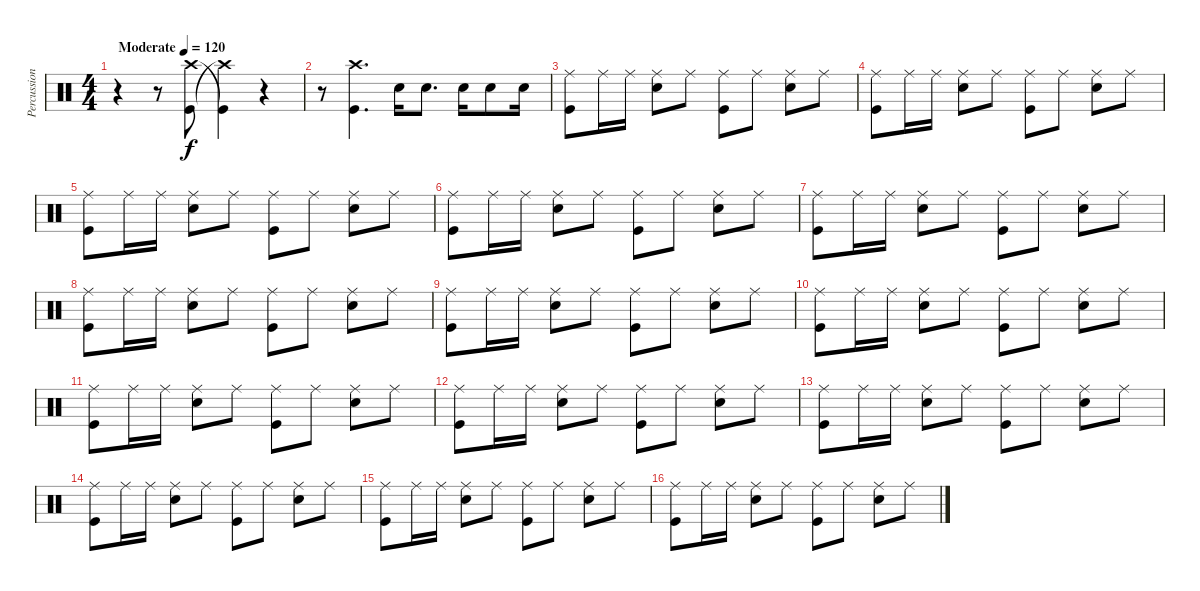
\track ("Percussion" "Percussion") {instrument percussion}
\staff {score}
\articulation defaults
\ts (4 4)
\tempo (120 "Moderate")
\clef neutral
\ks c
r.4{dy f} r.8 ("Kick (hit)" "Crash high (hit)").8 ("Crash high (hit)"{t} "Kick (hit)"{t}).4 r.4 |
r.8 ("Kick (hit)" "Crash high (hit)").4{d} "Snare (hit) 2".16 "Snare (hit) 2".8{d} "Snare (hit) 2".16 "Snare (hit) 2".8 "Snare (hit) 2".16 |
("Ride (middle)" "Kick (hit)").8 "Ride (middle)".16 "Ride (middle)".16 ("Ride (middle)" "Snare (hit) 2").8 "Ride (middle)".8 ("Ride (middle)" "Kick (hit)").8 "Ride (middle)".8 ("Ride (middle)" "Snare (hit) 2").8 "Ride (middle)".8 |
("Ride (middle)" "Kick (hit)").8 "Ride (middle)".16 "Ride (middle)".16 ("Ride (middle)" "Snare (hit) 2").8 "Ride (middle)".8 ("Ride (middle)" "Kick (hit)").8 "Ride (middle)".8 ("Ride (middle)" "Snare (hit) 2").8 "Ride (middle)".8 |
("Ride (middle)" "Kick (hit)").8 "Ride (middle)".16 "Ride (middle)".16 ("Ride (middle)" "Snare (hit) 2").8 "Ride (middle)".8 ("Ride (middle)" "Kick (hit)").8 "Ride (middle)".8 ("Ride (middle)" "Snare (hit) 2").8 "Ride (middle)".8 |
("Ride (middle)" "Kick (hit)").8 "Ride (middle)".16 "Ride (middle)".16 ("Ride (middle)" "Snare (hit) 2").8 "Ride (middle)".8 ("Ride (middle)" "Kick (hit)").8 "Ride (middle)".8 ("Ride (middle)" "Snare (hit) 2").8 "Ride (middle)".8 |
("Ride (middle)" "Kick (hit)").8 "Ride (middle)".16 "Ride (middle)".16 ("Ride (middle)" "Snare (hit) 2").8 "Ride (middle)".8 ("Ride (middle)" "Kick (hit)").8 "Ride (middle)".8 ("Ride (middle)" "Snare (hit) 2").8 "Ride (middle)".8 |
("Ride (middle)" "Kick (hit)").8 "Ride (middle)".16 "Ride (middle)".16 ("Ride (middle)" "Snare (hit) 2").8 "Ride (middle)".8 ("Ride (middle)" "Kick (hit)").8 "Ride (middle)".8 ("Ride (middle)" "Snare (hit) 2").8 "Ride (middle)".8 |
("Ride (middle)" "Kick (hit)").8 "Ride (middle)".16 "Ride (middle)".16 ("Ride (middle)" "Snare (hit) 2").8 "Ride (middle)".8 ("Ride (middle)" "Kick (hit)").8 "Ride (middle)".8 ("Ride (middle)" "Snare (hit) 2").8 "Ride (middle)".8 |
("Ride (middle)" "Kick (hit)").8 "Ride (middle)".16 "Ride (middle)".16 ("Ride (middle)" "Snare (hit) 2").8 "Ride (middle)".8 ("Ride (middle)" "Kick (hit)").8 "Ride (middle)".8 ("Ride (middle)" "Snare (hit) 2").8 "Ride (middle)".8 |
("Ride (middle)" "Kick (hit)").8 "Ride (middle)".16 "Ride (middle)".16 ("Ride (middle)" "Snare (hit) 2").8 "Ride (middle)".8 ("Ride (middle)" "Kick (hit)").8 "Ride (middle)".8 ("Ride (middle)" "Snare (hit) 2").8 "Ride (middle)".8 |
("Ride (middle)" "Kick (hit)").8 "Ride (middle)".16 "Ride (middle)".16 ("Ride (middle)" "Snare (hit) 2").8 "Ride (middle)".8 ("Ride (middle)" "Kick (hit)").8 "Ride (middle)".8 ("Ride (middle)" "Snare (hit) 2").8 "Ride (middle)".8 |
("Ride (middle)" "Kick (hit)").8 "Ride (middle)".16 "Ride (middle)".16 ("Ride (middle)" "Snare (hit) 2").8 "Ride (middle)".8 ("Ride (middle)" "Kick (hit)").8 "Ride (middle)".8 ("Ride (middle)" "Snare (hit) 2").8 "Ride (middle)".8 |
("Ride (middle)" "Kick (hit)").8 "Ride (middle)".16 "Ride (middle)".16 ("Ride (middle)" "Snare (hit) 2").8 "Ride (middle)".8 ("Ride (middle)" "Kick (hit)").8 "Ride (middle)".8 ("Ride (middle)" "Snare (hit) 2").8 "Ride (middle)".8 |
("Ride (middle)" "Kick (hit)").8 "Ride (middle)".16 "Ride (middle)".16 ("Ride (middle)" "Snare (hit) 2").8 "Ride (middle)".8 ("Ride (middle)" "Kick (hit)").8 "Ride (middle)".8 ("Ride (middle)" "Snare (hit) 2").8 "Ride (middle)".8 |
("Ride (middle)" "Kick (hit)").8 "Ride (middle)".16 "Ride (middle)".16 ("Ride (middle)" "Snare (hit) 2").8 "Ride (middle)".8 ("Ride (middle)" "Kick (hit)").8 "Ride (middle)".8 ("Ride (middle)" "Snare (hit) 2").8 "Ride (middle)".8
